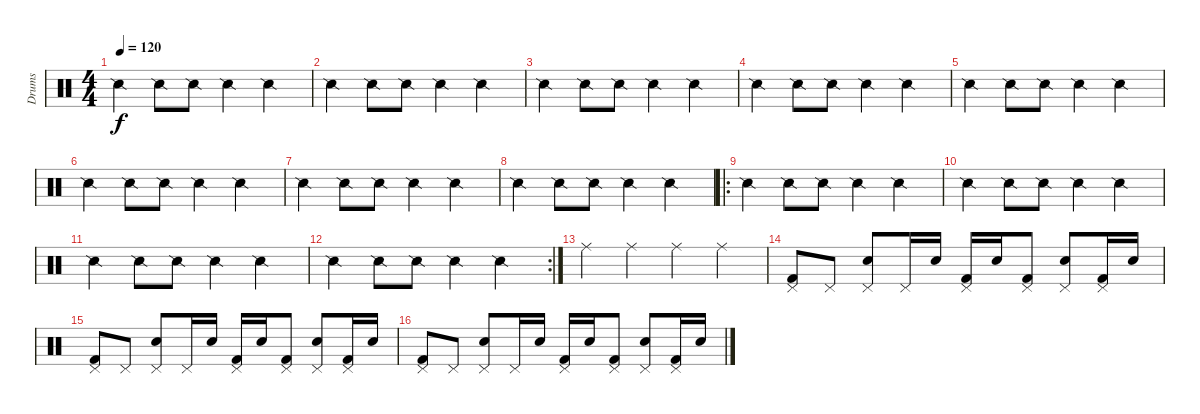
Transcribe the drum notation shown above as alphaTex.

\track ("Drums" "Drums") {instrument percussion}
\staff {score}
\articulation defaults
\ts (4 4)
\tempo 120
\clef neutral
\ks c "Snare (side stick) 2".4{dy f} "Snare (side stick) 2".8 "Snare (side stick) 2".8 "Snare (side stick) 2".4 "Snare (side stick) 2".4
|
"Snare (side stick) 2".4 "Snare (side stick) 2".8 "Snare (side stick) 2".8 "Snare (side stick) 2".4 "Snare (side stick) 2".4 |
"Snare (side stick) 2".4 "Snare (side stick) 2".8 "Snare (side stick) 2".8 "Snare (side stick) 2".4 "Snare (side stick) 2".4 |
"Snare (side stick) 2".4 "Snare (side stick) 2".8 "Snare (side stick) 2".8 "Snare (side stick) 2".4 "Snare (side stick) 2".4 |
"Snare (side stick) 2".4 "Snare (side stick) 2".8 "Snare (side stick) 2".8 "Snare (side stick) 2".4 "Snare (side stick) 2".4 |
"Snare (side stick) 2".4 "Snare (side stick) 2".8 "Snare (side stick) 2".8 "Snare (side stick) 2".4 "Snare (side stick) 2".4 |
"Snare (side stick) 2".4 "Snare (side stick) 2".8 "Snare (side stick) 2".8 "Snare (side stick) 2".4 "Snare (side stick) 2".4 |
"Snare (side stick) 2".4 "Snare (side stick) 2".8 "Snare (side stick) 2".8 "Snare (side stick) 2".4 "Snare (side stick) 2".4 |
\ro "Snare (side stick) 2".4 "Snare (side stick) 2".8 "Snare (side stick) 2".8 "Snare (side stick) 2".4 "Snare (side stick) 2".4
|
"Snare (side stick) 2".4 "Snare (side stick) 2".8 "Snare (side stick) 2".8 "Snare (side stick) 2".4 "Snare (side stick) 2".4 |
"Snare (side stick) 2".4 "Snare (side stick) 2".8 "Snare (side stick) 2".8 "Snare (side stick) 2".4 "Snare (side stick) 2".4 |
\rc 2 "Snare (side stick) 2".4 "Snare (side stick) 2".8 "Snare (side stick) 2".8 "Snare (side stick) 2".4 "Snare (side stick) 2".4
|
"Ride (middle)".4 "Ride (middle)".4 "Ride (middle)".4 "Ride (middle)".4 |
("Pedal Hi-Hat (hit)" "Kick (hit) 2").8 "Pedal Hi-Hat (hit)".8 ("Pedal Hi-Hat (hit)" "Snare (hit) 2").8 "Pedal Hi-Hat (hit)".16 "Snare (hit) 2".16 ("Pedal Hi-Hat (hit)" "Kick (hit) 2").16 "Snare (hit) 2".16 ("Pedal Hi-Hat (hit)" "Kick (hit) 2").8 ("Pedal Hi-Hat (hit)" "Snare (hit) 2").8 ("Pedal Hi-Hat (hit)" "Kick (hit) 2").16 "Snare (hit) 2".16 |
("Pedal Hi-Hat (hit)" "Kick (hit) 2").8 "Pedal Hi-Hat (hit)".8 ("Pedal Hi-Hat (hit)" "Snare (hit) 2").8 "Pedal Hi-Hat (hit)".16 "Snare (hit) 2".16 ("Pedal Hi-Hat (hit)" "Kick (hit) 2").16 "Snare (hit) 2".16 ("Pedal Hi-Hat (hit)" "Kick (hit) 2").8 ("Pedal Hi-Hat (hit)" "Snare (hit) 2").8 ("Pedal Hi-Hat (hit)" "Kick (hit) 2").16 "Snare (hit) 2".16 |
("Pedal Hi-Hat (hit)" "Kick (hit) 2").8 "Pedal Hi-Hat (hit)".8 ("Pedal Hi-Hat (hit)" "Snare (hit) 2").8 "Pedal Hi-Hat (hit)".16 "Snare (hit) 2".16 ("Pedal Hi-Hat (hit)" "Kick (hit) 2").16 "Snare (hit) 2".16 ("Pedal Hi-Hat (hit)" "Kick (hit) 2").8 ("Pedal Hi-Hat (hit)" "Snare (hit) 2").8 ("Pedal Hi-Hat (hit)" "Kick (hit) 2").16 "Snare (hit) 2".16
